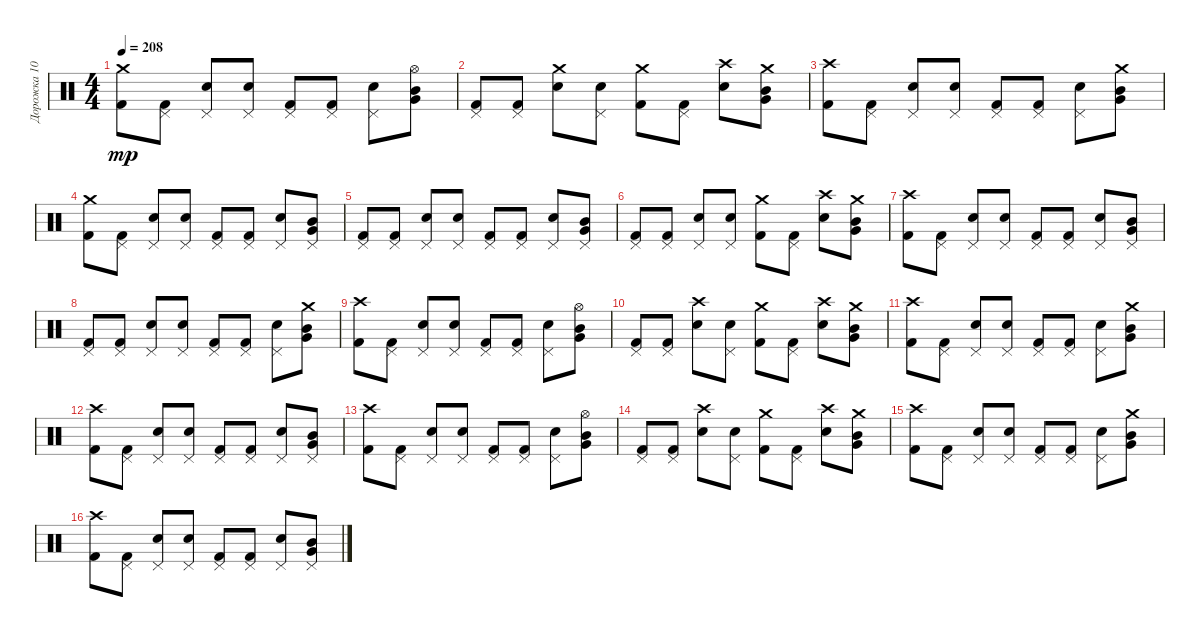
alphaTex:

\track ("Дорожка 10" "Дорожка 10") {instrument percussion}
\staff {score}
\articulation defaults
\ts (4 4)
\tempo 208
\clef neutral
\ks c
("Kick (hit) 2" "Crash medium (hit)").8{dy mp} ("Kick (hit) 2" "Pedal Hi-Hat (hit)").8 ("Snare (hit) 2" "Pedal Hi-Hat (hit)").8 ("Snare (hit) 2" "Pedal Hi-Hat (hit)").8 ("Kick (hit) 2" "Pedal Hi-Hat (hit)").8 ("Kick (hit) 2" "Pedal Hi-Hat (hit)").8 ("Snare (hit) 2" "Pedal Hi-Hat (hit)").8 ("Mid Tom (hit)" "Very Low Tom (hit)" "Hi-Hat (open)").8 |
("Kick (hit) 2" "Pedal Hi-Hat (hit)").8 ("Kick (hit) 2" "Pedal Hi-Hat (hit)").8 ("Snare (hit) 2" "Crash medium (hit)").8 ("Snare (hit) 2" "Pedal Hi-Hat (hit)").8 ("Kick (hit) 2" "Crash medium (hit)").8 ("Kick (hit) 2" "Pedal Hi-Hat (hit)").8 ("Snare (hit) 2" "Crash high (hit)").8 ("Mid Tom (hit)" "Very Low Tom (hit)" "Crash medium (hit)").8 |
("Kick (hit) 2" "Crash high (hit)").8 ("Kick (hit) 2" "Pedal Hi-Hat (hit)").8 ("Snare (hit) 2" "Pedal Hi-Hat (hit)").8 ("Snare (hit) 2" "Pedal Hi-Hat (hit)").8 ("Kick (hit) 2" "Pedal Hi-Hat (hit)").8 ("Kick (hit) 2" "Pedal Hi-Hat (hit)").8 ("Snare (hit) 2" "Pedal Hi-Hat (hit)").8 ("Mid Tom (hit)" "Very Low Tom (hit)" "Crash medium (hit)").8 |
("Kick (hit) 2" "Crash medium (hit)").8 ("Kick (hit) 2" "Pedal Hi-Hat (hit)").8 ("Snare (hit) 2" "Pedal Hi-Hat (hit)").8 ("Snare (hit) 2" "Pedal Hi-Hat (hit)").8 ("Kick (hit) 2" "Pedal Hi-Hat (hit)").8 ("Kick (hit) 2" "Pedal Hi-Hat (hit)").8 ("Snare (hit) 2" "Pedal Hi-Hat (hit)").8 ("Mid Tom (hit)" "Very Low Tom (hit)" "Pedal Hi-Hat (hit)").8 |
("Kick (hit) 2" "Pedal Hi-Hat (hit)").8 ("Kick (hit) 2" "Pedal Hi-Hat (hit)").8 ("Snare (hit) 2" "Pedal Hi-Hat (hit)").8 ("Snare (hit) 2" "Pedal Hi-Hat (hit)").8 ("Kick (hit) 2" "Pedal Hi-Hat (hit)").8 ("Kick (hit) 2" "Pedal Hi-Hat (hit)").8 ("Snare (hit) 2" "Pedal Hi-Hat (hit)").8 ("Mid Tom (hit)" "Very Low Tom (hit)" "Pedal Hi-Hat (hit)").8 |
("Kick (hit) 2" "Pedal Hi-Hat (hit)").8 ("Kick (hit) 2" "Pedal Hi-Hat (hit)").8 ("Snare (hit) 2" "Pedal Hi-Hat (hit)").8 ("Snare (hit) 2" "Pedal Hi-Hat (hit)").8 ("Kick (hit) 2" "Crash medium (hit)").8 ("Kick (hit) 2" "Pedal Hi-Hat (hit)").8 ("Snare (hit) 2" "Crash high (hit)").8 ("Mid Tom (hit)" "Very Low Tom (hit)" "Crash medium (hit)").8 |
("Kick (hit) 2" "Crash high (hit)").8 ("Kick (hit) 2" "Pedal Hi-Hat (hit)").8 ("Snare (hit) 2" "Pedal Hi-Hat (hit)").8 ("Snare (hit) 2" "Pedal Hi-Hat (hit)").8 ("Kick (hit) 2" "Pedal Hi-Hat (hit)").8 ("Kick (hit) 2" "Pedal Hi-Hat (hit)").8 ("Snare (hit) 2" "Pedal Hi-Hat (hit)").8 ("Mid Tom (hit)" "Very Low Tom (hit)" "Pedal Hi-Hat (hit)").8 |
("Kick (hit) 2" "Pedal Hi-Hat (hit)").8 ("Kick (hit) 2" "Pedal Hi-Hat (hit)").8 ("Snare (hit) 2" "Pedal Hi-Hat (hit)").8 ("Snare (hit) 2" "Pedal Hi-Hat (hit)").8 ("Kick (hit) 2" "Pedal Hi-Hat (hit)").8 ("Kick (hit) 2" "Pedal Hi-Hat (hit)").8 ("Snare (hit) 2" "Pedal Hi-Hat (hit)").8 ("Mid Tom (hit)" "Very Low Tom (hit)" "Crash medium (hit)").8 |
("Kick (hit) 2" "Crash high (hit)").8 ("Kick (hit) 2" "Pedal Hi-Hat (hit)").8 ("Snare (hit) 2" "Pedal Hi-Hat (hit)").8 ("Snare (hit) 2" "Pedal Hi-Hat (hit)").8 ("Kick (hit) 2" "Pedal Hi-Hat (hit)").8 ("Kick (hit) 2" "Pedal Hi-Hat (hit)").8 ("Snare (hit) 2" "Pedal Hi-Hat (hit)").8 ("Mid Tom (hit)" "Very Low Tom (hit)" "Hi-Hat (open)").8 |
("Kick (hit) 2" "Pedal Hi-Hat (hit)").8 ("Kick (hit) 2" "Pedal Hi-Hat (hit)").8 ("Snare (hit) 2" "Crash high (hit)").8 ("Snare (hit) 2" "Pedal Hi-Hat (hit)").8 ("Kick (hit) 2" "Crash medium (hit)").8 ("Kick (hit) 2" "Pedal Hi-Hat (hit)").8 ("Snare (hit) 2" "Crash high (hit)").8 ("Mid Tom (hit)" "Very Low Tom (hit)" "Crash medium (hit)").8 |
("Kick (hit) 2" "Crash high (hit)").8 ("Kick (hit) 2" "Pedal Hi-Hat (hit)").8 ("Snare (hit) 2" "Pedal Hi-Hat (hit)").8 ("Snare (hit) 2" "Pedal Hi-Hat (hit)").8 ("Kick (hit) 2" "Pedal Hi-Hat (hit)").8 ("Kick (hit) 2" "Pedal Hi-Hat (hit)").8 ("Snare (hit) 2" "Pedal Hi-Hat (hit)").8 ("Mid Tom (hit)" "Very Low Tom (hit)" "Crash medium (hit)").8 |
("Kick (hit) 2" "Crash high (hit)").8 ("Kick (hit) 2" "Pedal Hi-Hat (hit)").8 ("Snare (hit) 2" "Pedal Hi-Hat (hit)").8 ("Snare (hit) 2" "Pedal Hi-Hat (hit)").8 ("Kick (hit) 2" "Pedal Hi-Hat (hit)").8 ("Kick (hit) 2" "Pedal Hi-Hat (hit)").8 ("Snare (hit) 2" "Pedal Hi-Hat (hit)").8 ("Mid Tom (hit)" "Very Low Tom (hit)" "Pedal Hi-Hat (hit)").8 |
("Kick (hit) 2" "Crash high (hit)").8 ("Kick (hit) 2" "Pedal Hi-Hat (hit)").8 ("Snare (hit) 2" "Pedal Hi-Hat (hit)").8 ("Snare (hit) 2" "Pedal Hi-Hat (hit)").8 ("Kick (hit) 2" "Pedal Hi-Hat (hit)").8 ("Kick (hit) 2" "Pedal Hi-Hat (hit)").8 ("Snare (hit) 2" "Pedal Hi-Hat (hit)").8 ("Mid Tom (hit)" "Very Low Tom (hit)" "Hi-Hat (open)").8 |
("Kick (hit) 2" "Pedal Hi-Hat (hit)").8 ("Kick (hit) 2" "Pedal Hi-Hat (hit)").8 ("Snare (hit) 2" "Crash high (hit)").8 ("Snare (hit) 2" "Pedal Hi-Hat (hit)").8 ("Kick (hit) 2" "Crash medium (hit)").8 ("Kick (hit) 2" "Pedal Hi-Hat (hit)").8 ("Snare (hit) 2" "Crash high (hit)").8 ("Mid Tom (hit)" "Very Low Tom (hit)" "Crash medium (hit)").8 |
("Kick (hit) 2" "Crash high (hit)").8 ("Kick (hit) 2" "Pedal Hi-Hat (hit)").8 ("Snare (hit) 2" "Pedal Hi-Hat (hit)").8 ("Snare (hit) 2" "Pedal Hi-Hat (hit)").8 ("Kick (hit) 2" "Pedal Hi-Hat (hit)").8 ("Kick (hit) 2" "Pedal Hi-Hat (hit)").8 ("Snare (hit) 2" "Pedal Hi-Hat (hit)").8 ("Mid Tom (hit)" "Very Low Tom (hit)" "Crash medium (hit)").8 |
("Kick (hit) 2" "Crash high (hit)").8 ("Kick (hit) 2" "Pedal Hi-Hat (hit)").8 ("Snare (hit) 2" "Pedal Hi-Hat (hit)").8 ("Snare (hit) 2" "Pedal Hi-Hat (hit)").8 ("Kick (hit) 2" "Pedal Hi-Hat (hit)").8 ("Kick (hit) 2" "Pedal Hi-Hat (hit)").8 ("Snare (hit) 2" "Pedal Hi-Hat (hit)").8 ("Mid Tom (hit)" "Very Low Tom (hit)" "Pedal Hi-Hat (hit)").8
